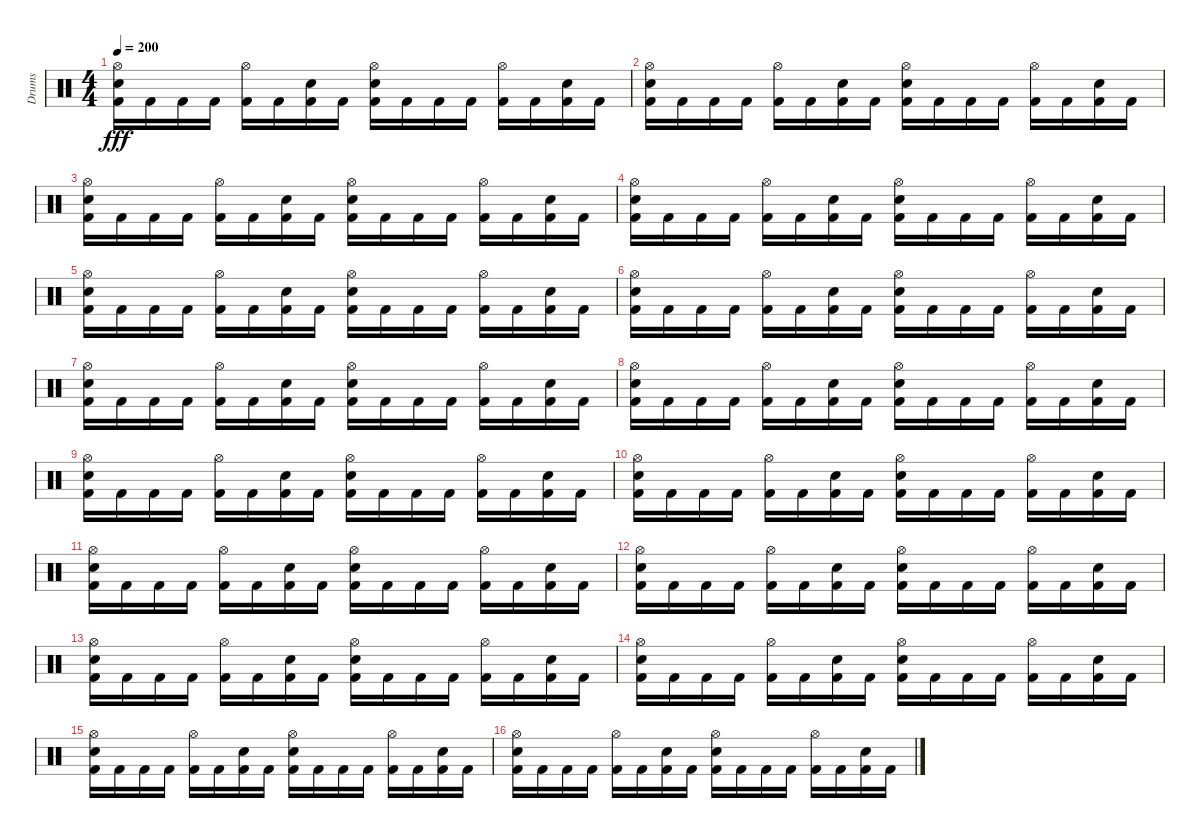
\track ("Drums" "Drums") {instrument percussion}
\staff {score}
\articulation defaults
\ts (4 4)
\tempo 200
\clef neutral
\ks c
("Hi-Hat (open)" "Electric Snare (hit)" "Kick (hit) 2").16{dy fff} "Kick (hit) 2".16 "Kick (hit) 2".16 "Kick (hit) 2".16 ("Hi-Hat (open)" "Kick (hit) 2").16 "Kick (hit) 2".16 ("Electric Snare (hit)" "Kick (hit) 2").16 "Kick (hit) 2".16 ("Hi-Hat (open)" "Electric Snare (hit)" "Kick (hit) 2").16 "Kick (hit) 2".16 "Kick (hit) 2".16 "Kick (hit) 2".16 ("Hi-Hat (open)" "Kick (hit) 2").16 "Kick (hit) 2".16 ("Electric Snare (hit)" "Kick (hit) 2").16 "Kick (hit) 2".16 |
("Hi-Hat (open)" "Electric Snare (hit)" "Kick (hit) 2").16 "Kick (hit) 2".16 "Kick (hit) 2".16 "Kick (hit) 2".16 ("Hi-Hat (open)" "Kick (hit) 2").16 "Kick (hit) 2".16 ("Electric Snare (hit)" "Kick (hit) 2").16 "Kick (hit) 2".16 ("Hi-Hat (open)" "Electric Snare (hit)" "Kick (hit) 2").16 "Kick (hit) 2".16 "Kick (hit) 2".16 "Kick (hit) 2".16 ("Hi-Hat (open)" "Kick (hit) 2").16 "Kick (hit) 2".16 ("Electric Snare (hit)" "Kick (hit) 2").16 "Kick (hit) 2".16 |
("Hi-Hat (open)" "Electric Snare (hit)" "Kick (hit) 2").16 "Kick (hit) 2".16 "Kick (hit) 2".16 "Kick (hit) 2".16 ("Hi-Hat (open)" "Kick (hit) 2").16 "Kick (hit) 2".16 ("Electric Snare (hit)" "Kick (hit) 2").16 "Kick (hit) 2".16 ("Hi-Hat (open)" "Electric Snare (hit)" "Kick (hit) 2").16 "Kick (hit) 2".16 "Kick (hit) 2".16 "Kick (hit) 2".16 ("Hi-Hat (open)" "Kick (hit) 2").16 "Kick (hit) 2".16 ("Electric Snare (hit)" "Kick (hit) 2").16 "Kick (hit) 2".16 |
("Hi-Hat (open)" "Electric Snare (hit)" "Kick (hit) 2").16 "Kick (hit) 2".16 "Kick (hit) 2".16 "Kick (hit) 2".16 ("Hi-Hat (open)" "Kick (hit) 2").16 "Kick (hit) 2".16 ("Electric Snare (hit)" "Kick (hit) 2").16 "Kick (hit) 2".16 ("Hi-Hat (open)" "Electric Snare (hit)" "Kick (hit) 2").16 "Kick (hit) 2".16 "Kick (hit) 2".16 "Kick (hit) 2".16 ("Hi-Hat (open)" "Kick (hit) 2").16 "Kick (hit) 2".16 ("Electric Snare (hit)" "Kick (hit) 2").16 "Kick (hit) 2".16 |
("Hi-Hat (open)" "Electric Snare (hit)" "Kick (hit) 2").16 "Kick (hit) 2".16 "Kick (hit) 2".16 "Kick (hit) 2".16 ("Hi-Hat (open)" "Kick (hit) 2").16 "Kick (hit) 2".16 ("Electric Snare (hit)" "Kick (hit) 2").16 "Kick (hit) 2".16 ("Hi-Hat (open)" "Electric Snare (hit)" "Kick (hit) 2").16 "Kick (hit) 2".16 "Kick (hit) 2".16 "Kick (hit) 2".16 ("Hi-Hat (open)" "Kick (hit) 2").16 "Kick (hit) 2".16 ("Electric Snare (hit)" "Kick (hit) 2").16 "Kick (hit) 2".16 |
("Hi-Hat (open)" "Electric Snare (hit)" "Kick (hit) 2").16 "Kick (hit) 2".16 "Kick (hit) 2".16 "Kick (hit) 2".16 ("Hi-Hat (open)" "Kick (hit) 2").16 "Kick (hit) 2".16 ("Electric Snare (hit)" "Kick (hit) 2").16 "Kick (hit) 2".16 ("Hi-Hat (open)" "Electric Snare (hit)" "Kick (hit) 2").16 "Kick (hit) 2".16 "Kick (hit) 2".16 "Kick (hit) 2".16 ("Hi-Hat (open)" "Kick (hit) 2").16 "Kick (hit) 2".16 ("Electric Snare (hit)" "Kick (hit) 2").16 "Kick (hit) 2".16 |
("Hi-Hat (open)" "Electric Snare (hit)" "Kick (hit) 2").16 "Kick (hit) 2".16 "Kick (hit) 2".16 "Kick (hit) 2".16 ("Hi-Hat (open)" "Kick (hit) 2").16 "Kick (hit) 2".16 ("Electric Snare (hit)" "Kick (hit) 2").16 "Kick (hit) 2".16 ("Hi-Hat (open)" "Electric Snare (hit)" "Kick (hit) 2").16 "Kick (hit) 2".16 "Kick (hit) 2".16 "Kick (hit) 2".16 ("Hi-Hat (open)" "Kick (hit) 2").16 "Kick (hit) 2".16 ("Electric Snare (hit)" "Kick (hit) 2").16 "Kick (hit) 2".16 |
("Hi-Hat (open)" "Electric Snare (hit)" "Kick (hit) 2").16 "Kick (hit) 2".16 "Kick (hit) 2".16 "Kick (hit) 2".16 ("Hi-Hat (open)" "Kick (hit) 2").16 "Kick (hit) 2".16 ("Electric Snare (hit)" "Kick (hit) 2").16 "Kick (hit) 2".16 ("Hi-Hat (open)" "Electric Snare (hit)" "Kick (hit) 2").16 "Kick (hit) 2".16 "Kick (hit) 2".16 "Kick (hit) 2".16 ("Hi-Hat (open)" "Kick (hit) 2").16 "Kick (hit) 2".16 ("Electric Snare (hit)" "Kick (hit) 2").16 "Kick (hit) 2".16 |
("Hi-Hat (open)" "Electric Snare (hit)" "Kick (hit) 2").16 "Kick (hit) 2".16 "Kick (hit) 2".16 "Kick (hit) 2".16 ("Hi-Hat (open)" "Kick (hit) 2").16 "Kick (hit) 2".16 ("Electric Snare (hit)" "Kick (hit) 2").16 "Kick (hit) 2".16 ("Hi-Hat (open)" "Electric Snare (hit)" "Kick (hit) 2").16 "Kick (hit) 2".16 "Kick (hit) 2".16 "Kick (hit) 2".16 ("Hi-Hat (open)" "Kick (hit) 2").16 "Kick (hit) 2".16 ("Electric Snare (hit)" "Kick (hit) 2").16 "Kick (hit) 2".16 |
("Hi-Hat (open)" "Electric Snare (hit)" "Kick (hit) 2").16 "Kick (hit) 2".16 "Kick (hit) 2".16 "Kick (hit) 2".16 ("Hi-Hat (open)" "Kick (hit) 2").16 "Kick (hit) 2".16 ("Electric Snare (hit)" "Kick (hit) 2").16 "Kick (hit) 2".16 ("Hi-Hat (open)" "Electric Snare (hit)" "Kick (hit) 2").16 "Kick (hit) 2".16 "Kick (hit) 2".16 "Kick (hit) 2".16 ("Hi-Hat (open)" "Kick (hit) 2").16 "Kick (hit) 2".16 ("Electric Snare (hit)" "Kick (hit) 2").16 "Kick (hit) 2".16 |
("Hi-Hat (open)" "Electric Snare (hit)" "Kick (hit) 2").16 "Kick (hit) 2".16 "Kick (hit) 2".16 "Kick (hit) 2".16 ("Hi-Hat (open)" "Kick (hit) 2").16 "Kick (hit) 2".16 ("Electric Snare (hit)" "Kick (hit) 2").16 "Kick (hit) 2".16 ("Hi-Hat (open)" "Electric Snare (hit)" "Kick (hit) 2").16 "Kick (hit) 2".16 "Kick (hit) 2".16 "Kick (hit) 2".16 ("Hi-Hat (open)" "Kick (hit) 2").16 "Kick (hit) 2".16 ("Electric Snare (hit)" "Kick (hit) 2").16 "Kick (hit) 2".16 |
("Hi-Hat (open)" "Electric Snare (hit)" "Kick (hit) 2").16 "Kick (hit) 2".16 "Kick (hit) 2".16 "Kick (hit) 2".16 ("Hi-Hat (open)" "Kick (hit) 2").16 "Kick (hit) 2".16 ("Electric Snare (hit)" "Kick (hit) 2").16 "Kick (hit) 2".16 ("Hi-Hat (open)" "Electric Snare (hit)" "Kick (hit) 2").16 "Kick (hit) 2".16 "Kick (hit) 2".16 "Kick (hit) 2".16 ("Hi-Hat (open)" "Kick (hit) 2").16 "Kick (hit) 2".16 ("Electric Snare (hit)" "Kick (hit) 2").16 "Kick (hit) 2".16 |
("Hi-Hat (open)" "Electric Snare (hit)" "Kick (hit) 2").16 "Kick (hit) 2".16 "Kick (hit) 2".16 "Kick (hit) 2".16 ("Hi-Hat (open)" "Kick (hit) 2").16 "Kick (hit) 2".16 ("Electric Snare (hit)" "Kick (hit) 2").16 "Kick (hit) 2".16 ("Hi-Hat (open)" "Electric Snare (hit)" "Kick (hit) 2").16 "Kick (hit) 2".16 "Kick (hit) 2".16 "Kick (hit) 2".16 ("Hi-Hat (open)" "Kick (hit) 2").16 "Kick (hit) 2".16 ("Electric Snare (hit)" "Kick (hit) 2").16 "Kick (hit) 2".16 |
("Hi-Hat (open)" "Electric Snare (hit)" "Kick (hit) 2").16 "Kick (hit) 2".16 "Kick (hit) 2".16 "Kick (hit) 2".16 ("Hi-Hat (open)" "Kick (hit) 2").16 "Kick (hit) 2".16 ("Electric Snare (hit)" "Kick (hit) 2").16 "Kick (hit) 2".16 ("Hi-Hat (open)" "Electric Snare (hit)" "Kick (hit) 2").16 "Kick (hit) 2".16 "Kick (hit) 2".16 "Kick (hit) 2".16 ("Hi-Hat (open)" "Kick (hit) 2").16 "Kick (hit) 2".16 ("Electric Snare (hit)" "Kick (hit) 2").16 "Kick (hit) 2".16 |
("Hi-Hat (open)" "Electric Snare (hit)" "Kick (hit) 2").16 "Kick (hit) 2".16 "Kick (hit) 2".16 "Kick (hit) 2".16 ("Hi-Hat (open)" "Kick (hit) 2").16 "Kick (hit) 2".16 ("Electric Snare (hit)" "Kick (hit) 2").16 "Kick (hit) 2".16 ("Hi-Hat (open)" "Electric Snare (hit)" "Kick (hit) 2").16 "Kick (hit) 2".16 "Kick (hit) 2".16 "Kick (hit) 2".16 ("Hi-Hat (open)" "Kick (hit) 2").16 "Kick (hit) 2".16 ("Electric Snare (hit)" "Kick (hit) 2").16 "Kick (hit) 2".16 |
("Hi-Hat (open)" "Electric Snare (hit)" "Kick (hit) 2").16 "Kick (hit) 2".16 "Kick (hit) 2".16 "Kick (hit) 2".16 ("Hi-Hat (open)" "Kick (hit) 2").16 "Kick (hit) 2".16 ("Electric Snare (hit)" "Kick (hit) 2").16 "Kick (hit) 2".16 ("Hi-Hat (open)" "Electric Snare (hit)" "Kick (hit) 2").16 "Kick (hit) 2".16 "Kick (hit) 2".16 "Kick (hit) 2".16 ("Hi-Hat (open)" "Kick (hit) 2").16 "Kick (hit) 2".16 ("Electric Snare (hit)" "Kick (hit) 2").16 "Kick (hit) 2".16
